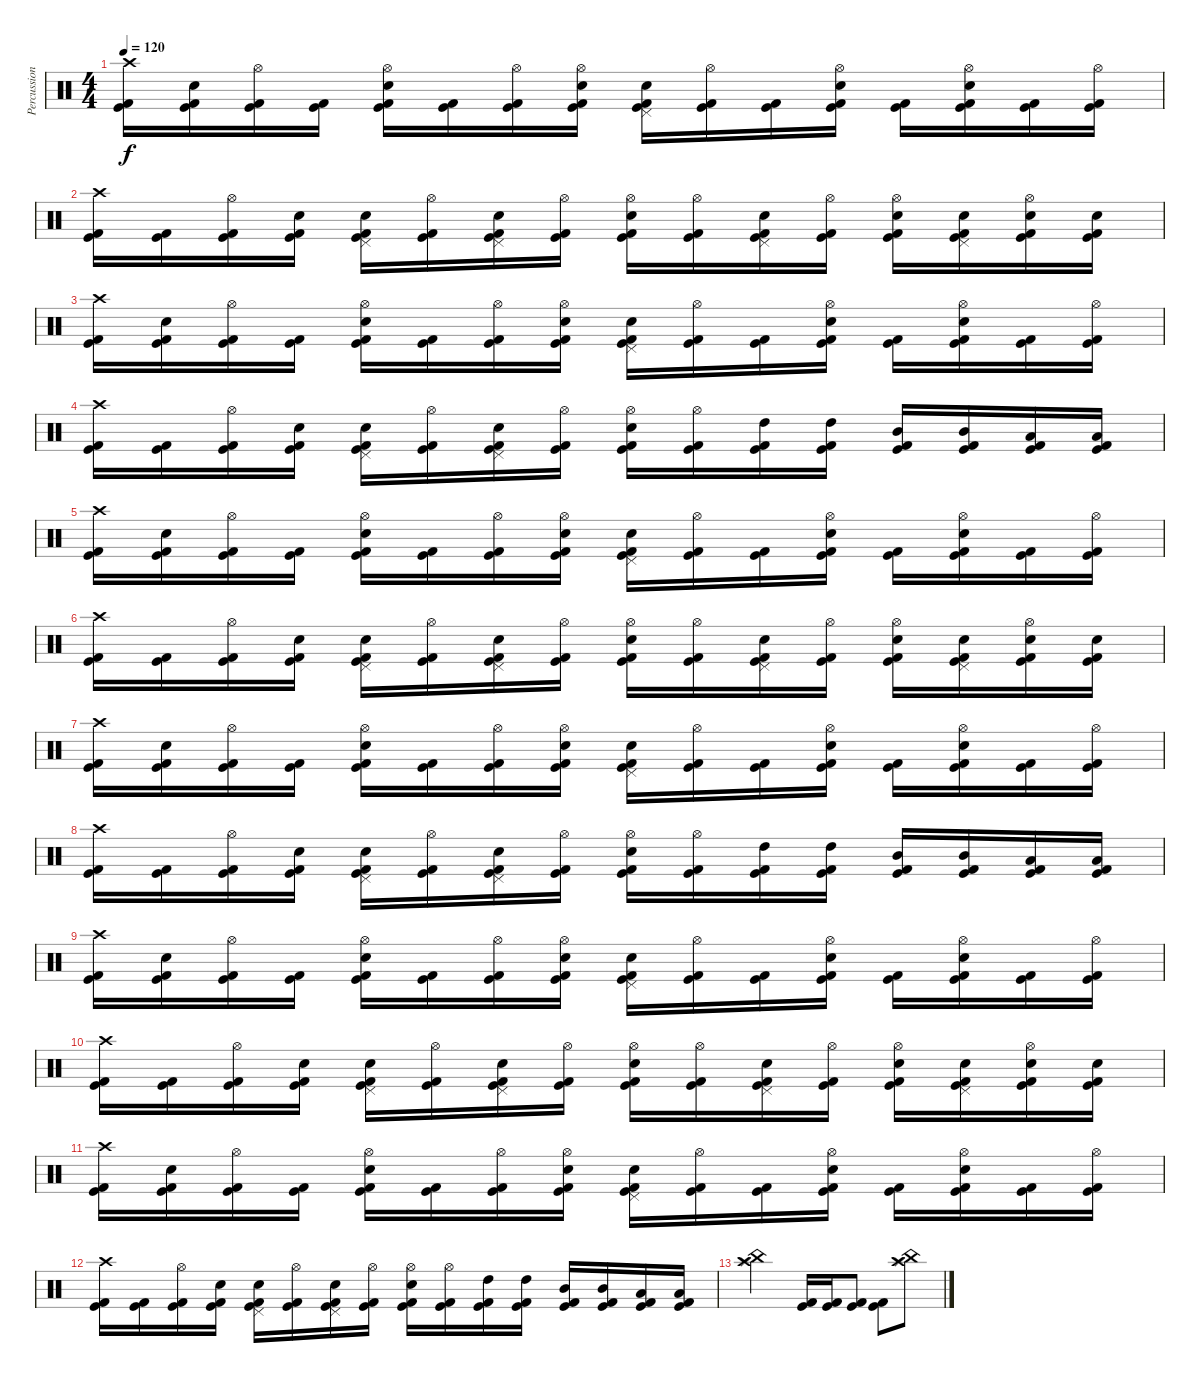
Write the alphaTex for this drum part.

\track ("Percussion" "Percussion") {instrument percussion}
\staff {score}
\articulation defaults
\ts (4 4)
\tempo 120
\clef neutral
\ks c
("Crash high (hit)" "Kick (hit) 2" "Kick (hit)").16{dy f} ("Snare (hit) 2" "Kick (hit) 2" "Kick (hit)").16 ("Hi-Hat (open)" "Kick (hit) 2" "Kick (hit)").16 ("Kick (hit) 2" "Kick (hit)").16 ("Hi-Hat (open)" "Snare (hit) 2" "Kick (hit) 2" "Kick (hit)").16 ("Kick (hit) 2" "Kick (hit)").16 ("Hi-Hat (open)" "Kick (hit) 2" "Kick (hit)").16 ("Hi-Hat (open)" "Snare (hit) 2" "Kick (hit) 2" "Kick (hit)").16 ("Pedal Hi-Hat (hit)" "Snare (hit) 2" "Kick (hit) 2" "Kick (hit)").16 ("Hi-Hat (open)" "Kick (hit) 2" "Kick (hit)").16 ("Kick (hit) 2" "Kick (hit)").16 ("Hi-Hat (open)" "Snare (hit) 2" "Kick (hit) 2" "Kick (hit)").16 ("Kick (hit) 2" "Kick (hit)").16 ("Hi-Hat (open)" "Snare (hit) 2" "Kick (hit) 2" "Kick (hit)").16 ("Kick (hit) 2" "Kick (hit)").16 ("Hi-Hat (open)" "Kick (hit) 2" "Kick (hit)").16 |
("Crash high (hit)" "Kick (hit) 2" "Kick (hit)").16 ("Kick (hit) 2" "Kick (hit)").16 ("Hi-Hat (open)" "Kick (hit) 2" "Kick (hit)").16 ("Snare (hit) 2" "Kick (hit) 2" "Kick (hit)").16 ("Pedal Hi-Hat (hit)" "Snare (hit) 2" "Kick (hit) 2" "Kick (hit)").16 ("Hi-Hat (open)" "Kick (hit) 2" "Kick (hit)").16 ("Pedal Hi-Hat (hit)" "Snare (hit) 2" "Kick (hit) 2" "Kick (hit)").16 ("Hi-Hat (open)" "Kick (hit) 2" "Kick (hit)").16 ("Hi-Hat (open)" "Snare (hit) 2" "Kick (hit) 2" "Kick (hit)").16 ("Hi-Hat (open)" "Kick (hit) 2" "Kick (hit)").16 ("Pedal Hi-Hat (hit)" "Snare (hit) 2" "Kick (hit) 2" "Kick (hit)").16 ("Hi-Hat (open)" "Kick (hit) 2" "Kick (hit)").16 ("Hi-Hat (open)" "Snare (hit) 2" "Kick (hit) 2" "Kick (hit)").16 ("Pedal Hi-Hat (hit)" "Snare (hit) 2" "Kick (hit) 2" "Kick (hit)").16 ("Hi-Hat (open)" "Snare (hit) 2" "Kick (hit) 2" "Kick (hit)").16 ("Snare (hit) 2" "Kick (hit) 2" "Kick (hit)").16 |
("Crash high (hit)" "Kick (hit) 2" "Kick (hit)").16 ("Snare (hit) 2" "Kick (hit) 2" "Kick (hit)").16 ("Hi-Hat (open)" "Kick (hit) 2" "Kick (hit)").16 ("Kick (hit) 2" "Kick (hit)").16 ("Hi-Hat (open)" "Snare (hit) 2" "Kick (hit) 2" "Kick (hit)").16 ("Kick (hit) 2" "Kick (hit)").16 ("Hi-Hat (open)" "Kick (hit) 2" "Kick (hit)").16 ("Hi-Hat (open)" "Snare (hit) 2" "Kick (hit) 2" "Kick (hit)").16 ("Pedal Hi-Hat (hit)" "Snare (hit) 2" "Kick (hit) 2" "Kick (hit)").16 ("Hi-Hat (open)" "Kick (hit) 2" "Kick (hit)").16 ("Kick (hit) 2" "Kick (hit)").16 ("Hi-Hat (open)" "Snare (hit) 2" "Kick (hit) 2" "Kick (hit)").16 ("Kick (hit) 2" "Kick (hit)").16 ("Hi-Hat (open)" "Snare (hit) 2" "Kick (hit) 2" "Kick (hit)").16 ("Kick (hit) 2" "Kick (hit)").16 ("Hi-Hat (open)" "Kick (hit) 2" "Kick (hit)").16 |
("Crash high (hit)" "Kick (hit) 2" "Kick (hit)").16 ("Kick (hit) 2" "Kick (hit)").16 ("Hi-Hat (open)" "Kick (hit) 2" "Kick (hit)").16 ("Snare (hit) 2" "Kick (hit) 2" "Kick (hit)").16 ("Pedal Hi-Hat (hit)" "Snare (hit) 2" "Kick (hit) 2" "Kick (hit)").16 ("Hi-Hat (open)" "Kick (hit) 2" "Kick (hit)").16 ("Pedal Hi-Hat (hit)" "Snare (hit) 2" "Kick (hit) 2" "Kick (hit)").16 ("Hi-Hat (open)" "Kick (hit) 2" "Kick (hit)").16 ("Hi-Hat (open)" "Snare (hit) 2" "Kick (hit) 2" "Kick (hit)").16 ("Hi-Hat (open)" "Kick (hit) 2" "Kick (hit)").16 ("High Tom (hit)" "Kick (hit) 2" "Kick (hit)").16 ("High Tom (hit)" "Kick (hit) 2" "Kick (hit)").16 ("Mid Tom (hit)" "Kick (hit) 2" "Kick (hit)").16 ("Mid Tom (hit)" "Kick (hit) 2" "Kick (hit)").16 ("Low Tom (hit)" "Kick (hit) 2" "Kick (hit)").16 ("Low Tom (hit)" "Kick (hit) 2" "Kick (hit)").16 |
("Crash high (hit)" "Kick (hit) 2" "Kick (hit)").16 ("Snare (hit) 2" "Kick (hit) 2" "Kick (hit)").16 ("Hi-Hat (open)" "Kick (hit) 2" "Kick (hit)").16 ("Kick (hit) 2" "Kick (hit)").16 ("Hi-Hat (open)" "Snare (hit) 2" "Kick (hit) 2" "Kick (hit)").16 ("Kick (hit) 2" "Kick (hit)").16 ("Hi-Hat (open)" "Kick (hit) 2" "Kick (hit)").16 ("Hi-Hat (open)" "Snare (hit) 2" "Kick (hit) 2" "Kick (hit)").16 ("Pedal Hi-Hat (hit)" "Snare (hit) 2" "Kick (hit) 2" "Kick (hit)").16 ("Hi-Hat (open)" "Kick (hit) 2" "Kick (hit)").16 ("Kick (hit) 2" "Kick (hit)").16 ("Hi-Hat (open)" "Snare (hit) 2" "Kick (hit) 2" "Kick (hit)").16 ("Kick (hit) 2" "Kick (hit)").16 ("Hi-Hat (open)" "Snare (hit) 2" "Kick (hit) 2" "Kick (hit)").16 ("Kick (hit) 2" "Kick (hit)").16 ("Hi-Hat (open)" "Kick (hit) 2" "Kick (hit)").16 |
("Crash high (hit)" "Kick (hit) 2" "Kick (hit)").16 ("Kick (hit) 2" "Kick (hit)").16 ("Hi-Hat (open)" "Kick (hit) 2" "Kick (hit)").16 ("Snare (hit) 2" "Kick (hit) 2" "Kick (hit)").16 ("Pedal Hi-Hat (hit)" "Snare (hit) 2" "Kick (hit) 2" "Kick (hit)").16 ("Hi-Hat (open)" "Kick (hit) 2" "Kick (hit)").16 ("Pedal Hi-Hat (hit)" "Snare (hit) 2" "Kick (hit) 2" "Kick (hit)").16 ("Hi-Hat (open)" "Kick (hit) 2" "Kick (hit)").16 ("Hi-Hat (open)" "Snare (hit) 2" "Kick (hit) 2" "Kick (hit)").16 ("Hi-Hat (open)" "Kick (hit) 2" "Kick (hit)").16 ("Pedal Hi-Hat (hit)" "Snare (hit) 2" "Kick (hit) 2" "Kick (hit)").16 ("Hi-Hat (open)" "Kick (hit) 2" "Kick (hit)").16 ("Hi-Hat (open)" "Snare (hit) 2" "Kick (hit) 2" "Kick (hit)").16 ("Pedal Hi-Hat (hit)" "Snare (hit) 2" "Kick (hit) 2" "Kick (hit)").16 ("Hi-Hat (open)" "Snare (hit) 2" "Kick (hit) 2" "Kick (hit)").16 ("Snare (hit) 2" "Kick (hit) 2" "Kick (hit)").16 |
("Crash high (hit)" "Kick (hit) 2" "Kick (hit)").16 ("Snare (hit) 2" "Kick (hit) 2" "Kick (hit)").16 ("Hi-Hat (open)" "Kick (hit) 2" "Kick (hit)").16 ("Kick (hit) 2" "Kick (hit)").16 ("Hi-Hat (open)" "Snare (hit) 2" "Kick (hit) 2" "Kick (hit)").16 ("Kick (hit) 2" "Kick (hit)").16 ("Hi-Hat (open)" "Kick (hit) 2" "Kick (hit)").16 ("Hi-Hat (open)" "Snare (hit) 2" "Kick (hit) 2" "Kick (hit)").16 ("Pedal Hi-Hat (hit)" "Snare (hit) 2" "Kick (hit) 2" "Kick (hit)").16 ("Hi-Hat (open)" "Kick (hit) 2" "Kick (hit)").16 ("Kick (hit) 2" "Kick (hit)").16 ("Hi-Hat (open)" "Snare (hit) 2" "Kick (hit) 2" "Kick (hit)").16 ("Kick (hit) 2" "Kick (hit)").16 ("Hi-Hat (open)" "Snare (hit) 2" "Kick (hit) 2" "Kick (hit)").16 ("Kick (hit) 2" "Kick (hit)").16 ("Hi-Hat (open)" "Kick (hit) 2" "Kick (hit)").16 |
("Crash high (hit)" "Kick (hit) 2" "Kick (hit)").16 ("Kick (hit) 2" "Kick (hit)").16 ("Hi-Hat (open)" "Kick (hit) 2" "Kick (hit)").16 ("Snare (hit) 2" "Kick (hit) 2" "Kick (hit)").16 ("Pedal Hi-Hat (hit)" "Snare (hit) 2" "Kick (hit) 2" "Kick (hit)").16 ("Hi-Hat (open)" "Kick (hit) 2" "Kick (hit)").16 ("Pedal Hi-Hat (hit)" "Snare (hit) 2" "Kick (hit) 2" "Kick (hit)").16 ("Hi-Hat (open)" "Kick (hit) 2" "Kick (hit)").16 ("Hi-Hat (open)" "Snare (hit) 2" "Kick (hit) 2" "Kick (hit)").16 ("Hi-Hat (open)" "Kick (hit) 2" "Kick (hit)").16 ("High Tom (hit)" "Kick (hit) 2" "Kick (hit)").16 ("High Tom (hit)" "Kick (hit) 2" "Kick (hit)").16 ("Mid Tom (hit)" "Kick (hit) 2" "Kick (hit)").16 ("Mid Tom (hit)" "Kick (hit) 2" "Kick (hit)").16 ("Low Tom (hit)" "Kick (hit) 2" "Kick (hit)").16 ("Low Tom (hit)" "Kick (hit) 2" "Kick (hit)").16 |
("Crash high (hit)" "Kick (hit) 2" "Kick (hit)").16 ("Snare (hit) 2" "Kick (hit) 2" "Kick (hit)").16 ("Hi-Hat (open)" "Kick (hit) 2" "Kick (hit)").16 ("Kick (hit) 2" "Kick (hit)").16 ("Hi-Hat (open)" "Snare (hit) 2" "Kick (hit) 2" "Kick (hit)").16 ("Kick (hit) 2" "Kick (hit)").16 ("Hi-Hat (open)" "Kick (hit) 2" "Kick (hit)").16 ("Hi-Hat (open)" "Snare (hit) 2" "Kick (hit) 2" "Kick (hit)").16 ("Pedal Hi-Hat (hit)" "Snare (hit) 2" "Kick (hit) 2" "Kick (hit)").16 ("Hi-Hat (open)" "Kick (hit) 2" "Kick (hit)").16 ("Kick (hit) 2" "Kick (hit)").16 ("Hi-Hat (open)" "Snare (hit) 2" "Kick (hit) 2" "Kick (hit)").16 ("Kick (hit) 2" "Kick (hit)").16 ("Hi-Hat (open)" "Snare (hit) 2" "Kick (hit) 2" "Kick (hit)").16 ("Kick (hit) 2" "Kick (hit)").16 ("Hi-Hat (open)" "Kick (hit) 2" "Kick (hit)").16 |
("Crash high (hit)" "Kick (hit) 2" "Kick (hit)").16 ("Kick (hit) 2" "Kick (hit)").16 ("Hi-Hat (open)" "Kick (hit) 2" "Kick (hit)").16 ("Snare (hit) 2" "Kick (hit) 2" "Kick (hit)").16 ("Pedal Hi-Hat (hit)" "Snare (hit) 2" "Kick (hit) 2" "Kick (hit)").16 ("Hi-Hat (open)" "Kick (hit) 2" "Kick (hit)").16 ("Pedal Hi-Hat (hit)" "Snare (hit) 2" "Kick (hit) 2" "Kick (hit)").16 ("Hi-Hat (open)" "Kick (hit) 2" "Kick (hit)").16 ("Hi-Hat (open)" "Snare (hit) 2" "Kick (hit) 2" "Kick (hit)").16 ("Hi-Hat (open)" "Kick (hit) 2" "Kick (hit)").16 ("Pedal Hi-Hat (hit)" "Snare (hit) 2" "Kick (hit) 2" "Kick (hit)").16 ("Hi-Hat (open)" "Kick (hit) 2" "Kick (hit)").16 ("Hi-Hat (open)" "Snare (hit) 2" "Kick (hit) 2" "Kick (hit)").16 ("Pedal Hi-Hat (hit)" "Snare (hit) 2" "Kick (hit) 2" "Kick (hit)").16 ("Hi-Hat (open)" "Snare (hit) 2" "Kick (hit) 2" "Kick (hit)").16 ("Snare (hit) 2" "Kick (hit) 2" "Kick (hit)").16 |
("Crash high (hit)" "Kick (hit) 2" "Kick (hit)").16 ("Snare (hit) 2" "Kick (hit) 2" "Kick (hit)").16 ("Hi-Hat (open)" "Kick (hit) 2" "Kick (hit)").16 ("Kick (hit) 2" "Kick (hit)").16 ("Hi-Hat (open)" "Snare (hit) 2" "Kick (hit) 2" "Kick (hit)").16 ("Kick (hit) 2" "Kick (hit)").16 ("Hi-Hat (open)" "Kick (hit) 2" "Kick (hit)").16 ("Hi-Hat (open)" "Snare (hit) 2" "Kick (hit) 2" "Kick (hit)").16 ("Pedal Hi-Hat (hit)" "Snare (hit) 2" "Kick (hit) 2" "Kick (hit)").16 ("Hi-Hat (open)" "Kick (hit) 2" "Kick (hit)").16 ("Kick (hit) 2" "Kick (hit)").16 ("Hi-Hat (open)" "Snare (hit) 2" "Kick (hit) 2" "Kick (hit)").16 ("Kick (hit) 2" "Kick (hit)").16 ("Hi-Hat (open)" "Snare (hit) 2" "Kick (hit) 2" "Kick (hit)").16 ("Kick (hit) 2" "Kick (hit)").16 ("Hi-Hat (open)" "Kick (hit) 2" "Kick (hit)").16 |
("Crash high (hit)" "Kick (hit) 2" "Kick (hit)").16 ("Kick (hit) 2" "Kick (hit)").16 ("Hi-Hat (open)" "Kick (hit) 2" "Kick (hit)").16 ("Snare (hit) 2" "Kick (hit) 2" "Kick (hit)").16 ("Pedal Hi-Hat (hit)" "Snare (hit) 2" "Kick (hit) 2" "Kick (hit)").16 ("Hi-Hat (open)" "Kick (hit) 2" "Kick (hit)").16 ("Pedal Hi-Hat (hit)" "Snare (hit) 2" "Kick (hit) 2" "Kick (hit)").16 ("Hi-Hat (open)" "Kick (hit) 2" "Kick (hit)").16 ("Hi-Hat (open)" "Snare (hit) 2" "Kick (hit) 2" "Kick (hit)").16 ("Hi-Hat (open)" "Kick (hit) 2" "Kick (hit)").16 ("High Tom (hit)" "Kick (hit) 2" "Kick (hit)").16 ("High Tom (hit)" "Kick (hit) 2" "Kick (hit)").16 ("Mid Tom (hit)" "Kick (hit) 2" "Kick (hit)").16 ("Mid Tom (hit)" "Kick (hit) 2" "Kick (hit)").16 ("Low Tom (hit)" "Kick (hit) 2" "Kick (hit)").16 ("Low Tom (hit)" "Kick (hit) 2" "Kick (hit)").16 |
("Crash high (hit)" "Splash (hit)" "China (hit)").2 ("Kick (hit) 2" "Kick (hit)").16 ("Kick (hit) 2" "Kick (hit)").16 ("Kick (hit) 2" "Kick (hit)").8 ("Kick (hit) 2" "Kick (hit)").8 ("Crash high (hit)" "Splash (hit)" "China (hit)").8
